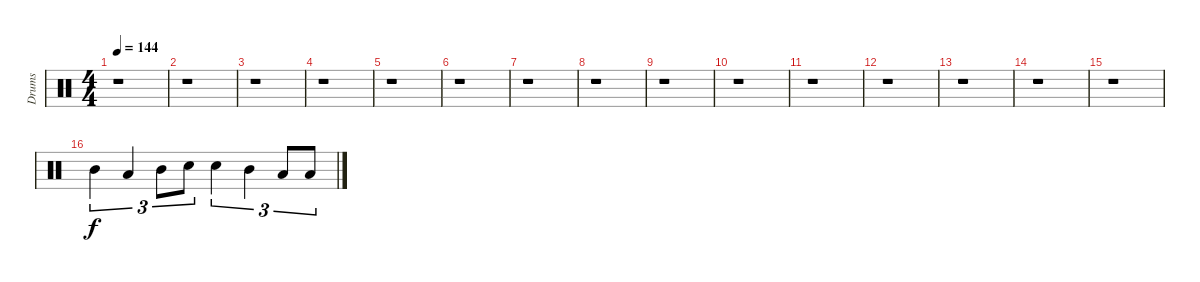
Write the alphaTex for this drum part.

\track ("Drums" "Drums") {instrument percussion}
\staff {score}
\articulation defaults
\ts (4 4)
\tempo 144
\clef neutral
\ks c
r.1{dy f} |
r.1 |
r.1 |
r.1 |
r.1 |
r.1 |
r.1 |
r.1 |
r.1 |
r.1 |
r.1 |
r.1 |
r.1 |
r.1 |
r.1 |
"Mid Tom (hit)".4{tu (3 2)} "Low Tom (hit)".4{tu (3 2)} "Mid Tom (hit)".8{tu (3 2)} "Snare (hit) 2".8{tu (3 2)} "Snare (hit) 2".4{tu (3 2)} "Mid Tom (hit)".4{tu (3 2)} "Low Tom (hit)".8{tu (3 2)} "Low Tom (hit)".8{tu (3 2)}
